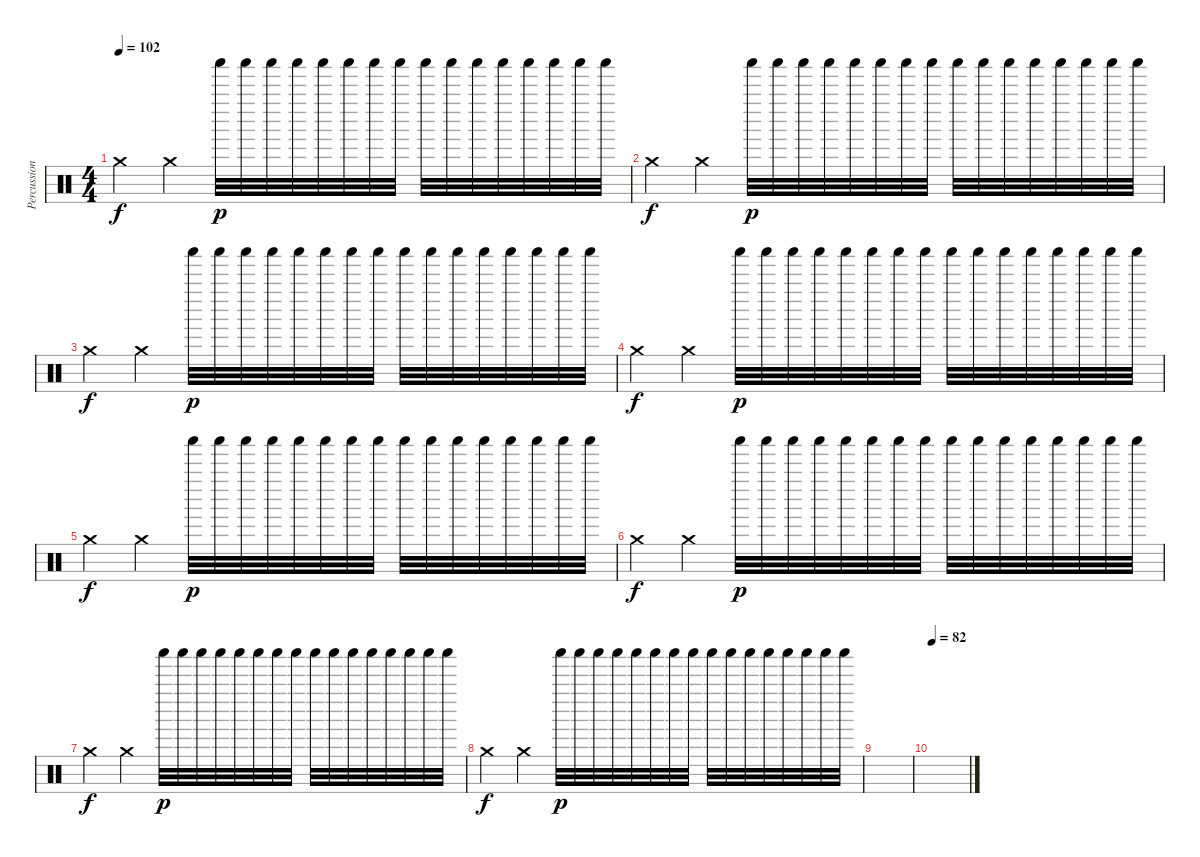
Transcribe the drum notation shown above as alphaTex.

\track ("Percussion" "Percussion") {instrument percussion}
\staff
\articulation defaults
\ts (4 4)
\tempo 102
\clef neutral
\ks c "Crash medium (hit)".4{dy f} "Crash medium (hit)".4 "Shaker (hit)".32{dy p} "Shaker (hit)".32 "Shaker (hit)".32 "Shaker (hit)".32 "Shaker (hit)".32 "Shaker (hit)".32 "Shaker (hit)".32 "Shaker (hit)".32 "Shaker (hit)".32 "Shaker (hit)".32 "Shaker (hit)".32 "Shaker (hit)".32 "Shaker (hit)".32 "Shaker (hit)".32 "Shaker (hit)".32 "Shaker (hit)".32
|
"Crash medium (hit)".4{dy f} "Crash medium (hit)".4 "Shaker (hit)".32{dy p} "Shaker (hit)".32 "Shaker (hit)".32 "Shaker (hit)".32 "Shaker (hit)".32 "Shaker (hit)".32 "Shaker (hit)".32 "Shaker (hit)".32 "Shaker (hit)".32 "Shaker (hit)".32 "Shaker (hit)".32 "Shaker (hit)".32 "Shaker (hit)".32 "Shaker (hit)".32 "Shaker (hit)".32 "Shaker (hit)".32 |
"Crash medium (hit)".4{dy f} "Crash medium (hit)".4 "Shaker (hit)".32{dy p} "Shaker (hit)".32 "Shaker (hit)".32 "Shaker (hit)".32 "Shaker (hit)".32 "Shaker (hit)".32 "Shaker (hit)".32 "Shaker (hit)".32 "Shaker (hit)".32 "Shaker (hit)".32 "Shaker (hit)".32 "Shaker (hit)".32 "Shaker (hit)".32 "Shaker (hit)".32 "Shaker (hit)".32 "Shaker (hit)".32 |
"Crash medium (hit)".4{dy f} "Crash medium (hit)".4 "Shaker (hit)".32{dy p} "Shaker (hit)".32 "Shaker (hit)".32 "Shaker (hit)".32 "Shaker (hit)".32 "Shaker (hit)".32 "Shaker (hit)".32 "Shaker (hit)".32 "Shaker (hit)".32 "Shaker (hit)".32 "Shaker (hit)".32 "Shaker (hit)".32 "Shaker (hit)".32 "Shaker (hit)".32 "Shaker (hit)".32 "Shaker (hit)".32 |
"Crash medium (hit)".4{dy f} "Crash medium (hit)".4 "Shaker (hit)".32{dy p} "Shaker (hit)".32 "Shaker (hit)".32 "Shaker (hit)".32 "Shaker (hit)".32 "Shaker (hit)".32 "Shaker (hit)".32 "Shaker (hit)".32 "Shaker (hit)".32 "Shaker (hit)".32 "Shaker (hit)".32 "Shaker (hit)".32 "Shaker (hit)".32 "Shaker (hit)".32 "Shaker (hit)".32 "Shaker (hit)".32 |
"Crash medium (hit)".4{dy f} "Crash medium (hit)".4 "Shaker (hit)".32{dy p} "Shaker (hit)".32 "Shaker (hit)".32 "Shaker (hit)".32 "Shaker (hit)".32 "Shaker (hit)".32 "Shaker (hit)".32 "Shaker (hit)".32 "Shaker (hit)".32 "Shaker (hit)".32 "Shaker (hit)".32 "Shaker (hit)".32 "Shaker (hit)".32 "Shaker (hit)".32 "Shaker (hit)".32 "Shaker (hit)".32 |
"Crash medium (hit)".4{dy f} "Crash medium (hit)".4 "Shaker (hit)".32{dy p} "Shaker (hit)".32 "Shaker (hit)".32 "Shaker (hit)".32 "Shaker (hit)".32 "Shaker (hit)".32 "Shaker (hit)".32 "Shaker (hit)".32 "Shaker (hit)".32 "Shaker (hit)".32 "Shaker (hit)".32 "Shaker (hit)".32 "Shaker (hit)".32 "Shaker (hit)".32 "Shaker (hit)".32 "Shaker (hit)".32 |
"Crash medium (hit)".4{dy f} "Crash medium (hit)".4 "Shaker (hit)".32{dy p} "Shaker (hit)".32 "Shaker (hit)".32 "Shaker (hit)".32 "Shaker (hit)".32 "Shaker (hit)".32 "Shaker (hit)".32 "Shaker (hit)".32 "Shaker (hit)".32 "Shaker (hit)".32 "Shaker (hit)".32 "Shaker (hit)".32 "Shaker (hit)".32 "Shaker (hit)".32 "Shaker (hit)".32 "Shaker (hit)".32 |
|
\tempo 82
